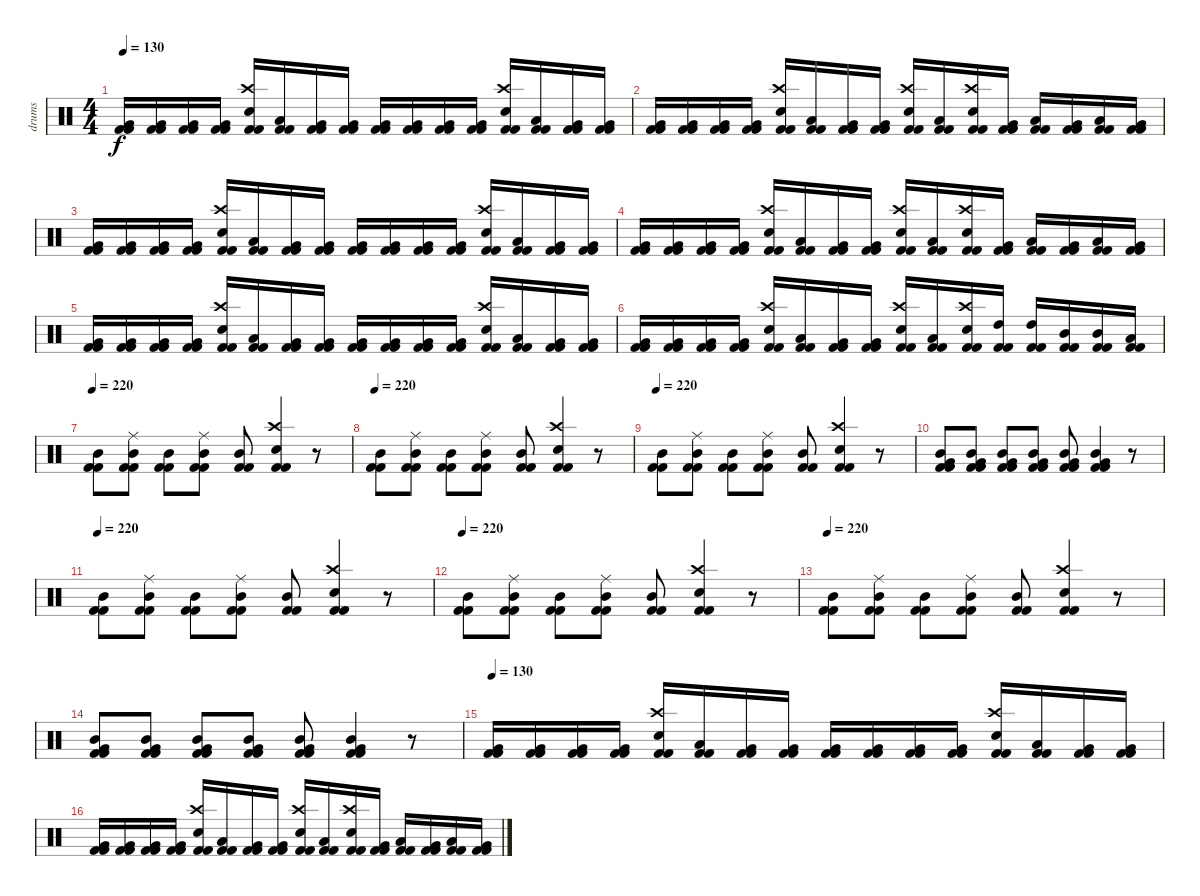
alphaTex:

\track ("drums" "drums") {instrument percussion}
\staff {score}
\articulation defaults
\ts (4 4)
\tempo 130
\clef neutral
\ks c
("Very Low Tom (hit)" "Kick (hit) 2" "Kick (hit) 2").16{dy f} ("Very Low Tom (hit)" "Kick (hit) 2" "Kick (hit) 2").16 ("Very Low Tom (hit)" "Kick (hit) 2" "Kick (hit) 2").16 ("Very Low Tom (hit)" "Kick (hit) 2" "Kick (hit) 2").16 ("Crash high (hit)" "Electric Snare (hit)" "Kick (hit) 2" "Kick (hit) 2").16 ("Low Tom (hit)" "Kick (hit) 2" "Kick (hit) 2").16 ("Very Low Tom (hit)" "Kick (hit) 2" "Kick (hit) 2").16 ("Very Low Tom (hit)" "Kick (hit) 2" "Kick (hit) 2").16 ("Very Low Tom (hit)" "Kick (hit) 2" "Kick (hit) 2").16 ("Very Low Tom (hit)" "Kick (hit) 2" "Kick (hit) 2").16 ("Very Low Tom (hit)" "Kick (hit) 2" "Kick (hit) 2").16 ("Very Low Tom (hit)" "Kick (hit) 2" "Kick (hit) 2").16 ("Crash high (hit)" "Electric Snare (hit)" "Kick (hit) 2" "Kick (hit) 2").16 ("Low Tom (hit)" "Kick (hit) 2" "Kick (hit) 2").16 ("Very Low Tom (hit)" "Kick (hit) 2" "Kick (hit) 2").16 ("Very Low Tom (hit)" "Kick (hit) 2" "Kick (hit) 2").16 |
("Very Low Tom (hit)" "Kick (hit) 2" "Kick (hit) 2").16 ("Very Low Tom (hit)" "Kick (hit) 2" "Kick (hit) 2").16 ("Very Low Tom (hit)" "Kick (hit) 2" "Kick (hit) 2").16 ("Very Low Tom (hit)" "Kick (hit) 2" "Kick (hit) 2").16 ("Crash high (hit)" "Electric Snare (hit)" "Kick (hit) 2" "Kick (hit) 2").16 ("Low Tom (hit)" "Kick (hit) 2" "Kick (hit) 2").16 ("Very Low Tom (hit)" "Kick (hit) 2" "Kick (hit) 2").16 ("Very Low Tom (hit)" "Kick (hit) 2" "Kick (hit) 2").16 ("Crash high (hit)" "Electric Snare (hit)" "Kick (hit) 2" "Kick (hit) 2").16 ("Low Tom (hit)" "Kick (hit) 2" "Kick (hit) 2").16 ("Crash high (hit)" "Electric Snare (hit)" "Kick (hit) 2" "Kick (hit) 2").16 ("Very Low Tom (hit)" "Kick (hit) 2" "Kick (hit) 2").16 ("Low Tom (hit)" "Kick (hit) 2" "Kick (hit) 2").16 ("Very Low Tom (hit)" "Kick (hit) 2" "Kick (hit) 2").16 ("Low Tom (hit)" "Kick (hit) 2" "Kick (hit) 2").16 ("Very Low Tom (hit)" "Kick (hit) 2" "Kick (hit) 2").16 |
("Very Low Tom (hit)" "Kick (hit) 2" "Kick (hit) 2").16 ("Very Low Tom (hit)" "Kick (hit) 2" "Kick (hit) 2").16 ("Very Low Tom (hit)" "Kick (hit) 2" "Kick (hit) 2").16 ("Very Low Tom (hit)" "Kick (hit) 2" "Kick (hit) 2").16 ("Crash high (hit)" "Electric Snare (hit)" "Kick (hit) 2" "Kick (hit) 2").16 ("Low Tom (hit)" "Kick (hit) 2" "Kick (hit) 2").16 ("Very Low Tom (hit)" "Kick (hit) 2" "Kick (hit) 2").16 ("Very Low Tom (hit)" "Kick (hit) 2" "Kick (hit) 2").16 ("Very Low Tom (hit)" "Kick (hit) 2" "Kick (hit) 2").16 ("Very Low Tom (hit)" "Kick (hit) 2" "Kick (hit) 2").16 ("Very Low Tom (hit)" "Kick (hit) 2" "Kick (hit) 2").16 ("Very Low Tom (hit)" "Kick (hit) 2" "Kick (hit) 2").16 ("Crash high (hit)" "Electric Snare (hit)" "Kick (hit) 2" "Kick (hit) 2").16 ("Low Tom (hit)" "Kick (hit) 2" "Kick (hit) 2").16 ("Very Low Tom (hit)" "Kick (hit) 2" "Kick (hit) 2").16 ("Very Low Tom (hit)" "Kick (hit) 2" "Kick (hit) 2").16 |
("Very Low Tom (hit)" "Kick (hit) 2" "Kick (hit) 2").16 ("Very Low Tom (hit)" "Kick (hit) 2" "Kick (hit) 2").16 ("Very Low Tom (hit)" "Kick (hit) 2" "Kick (hit) 2").16 ("Very Low Tom (hit)" "Kick (hit) 2" "Kick (hit) 2").16 ("Crash high (hit)" "Electric Snare (hit)" "Kick (hit) 2" "Kick (hit) 2").16 ("Low Tom (hit)" "Kick (hit) 2" "Kick (hit) 2").16 ("Very Low Tom (hit)" "Kick (hit) 2" "Kick (hit) 2").16 ("Very Low Tom (hit)" "Kick (hit) 2" "Kick (hit) 2").16 ("Crash high (hit)" "Electric Snare (hit)" "Kick (hit) 2" "Kick (hit) 2").16 ("Low Tom (hit)" "Kick (hit) 2" "Kick (hit) 2").16 ("Crash high (hit)" "Electric Snare (hit)" "Kick (hit) 2" "Kick (hit) 2").16 ("Very Low Tom (hit)" "Kick (hit) 2" "Kick (hit) 2").16 ("Low Tom (hit)" "Kick (hit) 2" "Kick (hit) 2").16 ("Very Low Tom (hit)" "Kick (hit) 2" "Kick (hit) 2").16 ("Low Tom (hit)" "Kick (hit) 2" "Kick (hit) 2").16 ("Very Low Tom (hit)" "Kick (hit) 2" "Kick (hit) 2").16 |
("Very Low Tom (hit)" "Kick (hit) 2" "Kick (hit) 2").16 ("Very Low Tom (hit)" "Kick (hit) 2" "Kick (hit) 2").16 ("Very Low Tom (hit)" "Kick (hit) 2" "Kick (hit) 2").16 ("Very Low Tom (hit)" "Kick (hit) 2" "Kick (hit) 2").16 ("Crash high (hit)" "Electric Snare (hit)" "Kick (hit) 2" "Kick (hit) 2").16 ("Low Tom (hit)" "Kick (hit) 2" "Kick (hit) 2").16 ("Very Low Tom (hit)" "Kick (hit) 2" "Kick (hit) 2").16 ("Very Low Tom (hit)" "Kick (hit) 2" "Kick (hit) 2").16 ("Very Low Tom (hit)" "Kick (hit) 2" "Kick (hit) 2").16 ("Very Low Tom (hit)" "Kick (hit) 2" "Kick (hit) 2").16 ("Very Low Tom (hit)" "Kick (hit) 2" "Kick (hit) 2").16 ("Very Low Tom (hit)" "Kick (hit) 2" "Kick (hit) 2").16 ("Crash high (hit)" "Electric Snare (hit)" "Kick (hit) 2" "Kick (hit) 2").16 ("Low Tom (hit)" "Kick (hit) 2" "Kick (hit) 2").16 ("Very Low Tom (hit)" "Kick (hit) 2" "Kick (hit) 2").16 ("Very Low Tom (hit)" "Kick (hit) 2" "Kick (hit) 2").16 |
("Very Low Tom (hit)" "Kick (hit) 2" "Kick (hit) 2").16 ("Very Low Tom (hit)" "Kick (hit) 2" "Kick (hit) 2").16 ("Very Low Tom (hit)" "Kick (hit) 2" "Kick (hit) 2").16 ("Very Low Tom (hit)" "Kick (hit) 2" "Kick (hit) 2").16 ("Crash high (hit)" "Electric Snare (hit)" "Kick (hit) 2" "Kick (hit) 2").16 ("Low Tom (hit)" "Kick (hit) 2" "Kick (hit) 2").16 ("Very Low Tom (hit)" "Kick (hit) 2" "Kick (hit) 2").16 ("Very Low Tom (hit)" "Kick (hit) 2" "Kick (hit) 2").16 ("Crash high (hit)" "Electric Snare (hit)" "Kick (hit) 2" "Kick (hit) 2").16 ("Low Tom (hit)" "Kick (hit) 2" "Kick (hit) 2").16 ("Crash high (hit)" "Electric Snare (hit)" "Kick (hit) 2" "Kick (hit) 2").16 ("High Tom (hit)" "Kick (hit) 2" "Kick (hit) 2").16 ("High Tom (hit)" "Kick (hit) 2" "Kick (hit) 2").16 ("Mid Tom (hit)" "Kick (hit) 2" "Kick (hit) 2").16 ("Mid Tom (hit)" "Kick (hit) 2" "Kick (hit) 2").16 ("Low Tom (hit)" "Kick (hit) 2" "Kick (hit) 2").16 |
\tempo 220
("Mid Tom (hit)" "Kick (hit) 2" "Kick (hit) 2").8 ("Ride (middle)" "Mid Tom (hit)" "Kick (hit) 2" "Kick (hit) 2").8 ("Mid Tom (hit)" "Kick (hit) 2" "Kick (hit) 2").8 ("Ride (middle)" "Mid Tom (hit)" "Kick (hit) 2" "Kick (hit) 2").8 ("Mid Tom (hit)" "Kick (hit) 2" "Kick (hit) 2").8 ("Crash high (hit)" "Electric Snare (hit)" "Kick (hit) 2" "Kick (hit) 2").4 r.8 |
\tempo 220
("Mid Tom (hit)" "Kick (hit) 2" "Kick (hit) 2").8 ("Ride (middle)" "Mid Tom (hit)" "Kick (hit) 2" "Kick (hit) 2").8 ("Mid Tom (hit)" "Kick (hit) 2" "Kick (hit) 2").8 ("Ride (middle)" "Mid Tom (hit)" "Kick (hit) 2" "Kick (hit) 2").8 ("Mid Tom (hit)" "Kick (hit) 2" "Kick (hit) 2").8 ("Crash high (hit)" "Electric Snare (hit)" "Kick (hit) 2" "Kick (hit) 2").4 r.8 |
\tempo 220
("Mid Tom (hit)" "Kick (hit) 2" "Kick (hit) 2").8 ("Ride (middle)" "Mid Tom (hit)" "Kick (hit) 2" "Kick (hit) 2").8 ("Mid Tom (hit)" "Kick (hit) 2" "Kick (hit) 2").8 ("Ride (middle)" "Mid Tom (hit)" "Kick (hit) 2" "Kick (hit) 2").8 ("Mid Tom (hit)" "Kick (hit) 2" "Kick (hit) 2").8 ("Crash high (hit)" "Electric Snare (hit)" "Kick (hit) 2" "Kick (hit) 2").4 r.8 |
("Mid Tom (hit)" "Very Low Tom (hit)" "Kick (hit) 2" "Kick (hit) 2").8 ("Mid Tom (hit)" "Very Low Tom (hit)" "Kick (hit) 2" "Kick (hit) 2").8 ("Mid Tom (hit)" "Very Low Tom (hit)" "Kick (hit) 2" "Kick (hit) 2").8 ("Mid Tom (hit)" "Very Low Tom (hit)" "Kick (hit) 2" "Kick (hit) 2").8 ("Mid Tom (hit)" "Very Low Tom (hit)" "Kick (hit) 2" "Kick (hit) 2").8 ("Mid Tom (hit)" "Very Low Tom (hit)" "Kick (hit) 2" "Kick (hit) 2").4 r.8 |
\tempo 220
("Mid Tom (hit)" "Kick (hit) 2" "Kick (hit) 2").8 ("Ride (middle)" "Mid Tom (hit)" "Kick (hit) 2" "Kick (hit) 2").8 ("Mid Tom (hit)" "Kick (hit) 2" "Kick (hit) 2").8 ("Ride (middle)" "Mid Tom (hit)" "Kick (hit) 2" "Kick (hit) 2").8 ("Mid Tom (hit)" "Kick (hit) 2" "Kick (hit) 2").8 ("Crash high (hit)" "Electric Snare (hit)" "Kick (hit) 2" "Kick (hit) 2").4 r.8 |
\tempo 220
("Mid Tom (hit)" "Kick (hit) 2" "Kick (hit) 2").8 ("Ride (middle)" "Mid Tom (hit)" "Kick (hit) 2" "Kick (hit) 2").8 ("Mid Tom (hit)" "Kick (hit) 2" "Kick (hit) 2").8 ("Ride (middle)" "Mid Tom (hit)" "Kick (hit) 2" "Kick (hit) 2").8 ("Mid Tom (hit)" "Kick (hit) 2" "Kick (hit) 2").8 ("Crash high (hit)" "Electric Snare (hit)" "Kick (hit) 2" "Kick (hit) 2").4 r.8 |
\tempo 220
("Mid Tom (hit)" "Kick (hit) 2" "Kick (hit) 2").8 ("Ride (middle)" "Mid Tom (hit)" "Kick (hit) 2" "Kick (hit) 2").8 ("Mid Tom (hit)" "Kick (hit) 2" "Kick (hit) 2").8 ("Ride (middle)" "Mid Tom (hit)" "Kick (hit) 2" "Kick (hit) 2").8 ("Mid Tom (hit)" "Kick (hit) 2" "Kick (hit) 2").8 ("Crash high (hit)" "Electric Snare (hit)" "Kick (hit) 2" "Kick (hit) 2").4 r.8 |
("Mid Tom (hit)" "Very Low Tom (hit)" "Kick (hit) 2" "Kick (hit) 2").8 ("Mid Tom (hit)" "Very Low Tom (hit)" "Kick (hit) 2" "Kick (hit) 2").8 ("Mid Tom (hit)" "Very Low Tom (hit)" "Kick (hit) 2" "Kick (hit) 2").8 ("Mid Tom (hit)" "Very Low Tom (hit)" "Kick (hit) 2" "Kick (hit) 2").8 ("Mid Tom (hit)" "Very Low Tom (hit)" "Kick (hit) 2" "Kick (hit) 2").8 ("Mid Tom (hit)" "Very Low Tom (hit)" "Kick (hit) 2" "Kick (hit) 2").4 r.8 |
\tempo 130
("Very Low Tom (hit)" "Kick (hit) 2" "Kick (hit) 2").16 ("Very Low Tom (hit)" "Kick (hit) 2" "Kick (hit) 2").16 ("Very Low Tom (hit)" "Kick (hit) 2" "Kick (hit) 2").16 ("Very Low Tom (hit)" "Kick (hit) 2" "Kick (hit) 2").16 ("Crash high (hit)" "Electric Snare (hit)" "Kick (hit) 2" "Kick (hit) 2").16 ("Low Tom (hit)" "Kick (hit) 2" "Kick (hit) 2").16 ("Very Low Tom (hit)" "Kick (hit) 2" "Kick (hit) 2").16 ("Very Low Tom (hit)" "Kick (hit) 2" "Kick (hit) 2").16 ("Very Low Tom (hit)" "Kick (hit) 2" "Kick (hit) 2").16 ("Very Low Tom (hit)" "Kick (hit) 2" "Kick (hit) 2").16 ("Very Low Tom (hit)" "Kick (hit) 2" "Kick (hit) 2").16 ("Very Low Tom (hit)" "Kick (hit) 2" "Kick (hit) 2").16 ("Crash high (hit)" "Electric Snare (hit)" "Kick (hit) 2" "Kick (hit) 2").16 ("Low Tom (hit)" "Kick (hit) 2" "Kick (hit) 2").16 ("Very Low Tom (hit)" "Kick (hit) 2" "Kick (hit) 2").16 ("Very Low Tom (hit)" "Kick (hit) 2" "Kick (hit) 2").16 |
("Very Low Tom (hit)" "Kick (hit) 2" "Kick (hit) 2").16 ("Very Low Tom (hit)" "Kick (hit) 2" "Kick (hit) 2").16 ("Very Low Tom (hit)" "Kick (hit) 2" "Kick (hit) 2").16 ("Very Low Tom (hit)" "Kick (hit) 2" "Kick (hit) 2").16 ("Crash high (hit)" "Electric Snare (hit)" "Kick (hit) 2" "Kick (hit) 2").16 ("Low Tom (hit)" "Kick (hit) 2" "Kick (hit) 2").16 ("Very Low Tom (hit)" "Kick (hit) 2" "Kick (hit) 2").16 ("Very Low Tom (hit)" "Kick (hit) 2" "Kick (hit) 2").16 ("Crash high (hit)" "Electric Snare (hit)" "Kick (hit) 2" "Kick (hit) 2").16 ("Low Tom (hit)" "Kick (hit) 2" "Kick (hit) 2").16 ("Crash high (hit)" "Electric Snare (hit)" "Kick (hit) 2" "Kick (hit) 2").16 ("Very Low Tom (hit)" "Kick (hit) 2" "Kick (hit) 2").16 ("Low Tom (hit)" "Kick (hit) 2" "Kick (hit) 2").16 ("Very Low Tom (hit)" "Kick (hit) 2" "Kick (hit) 2").16 ("Low Tom (hit)" "Kick (hit) 2" "Kick (hit) 2").16 ("Very Low Tom (hit)" "Kick (hit) 2" "Kick (hit) 2").16
